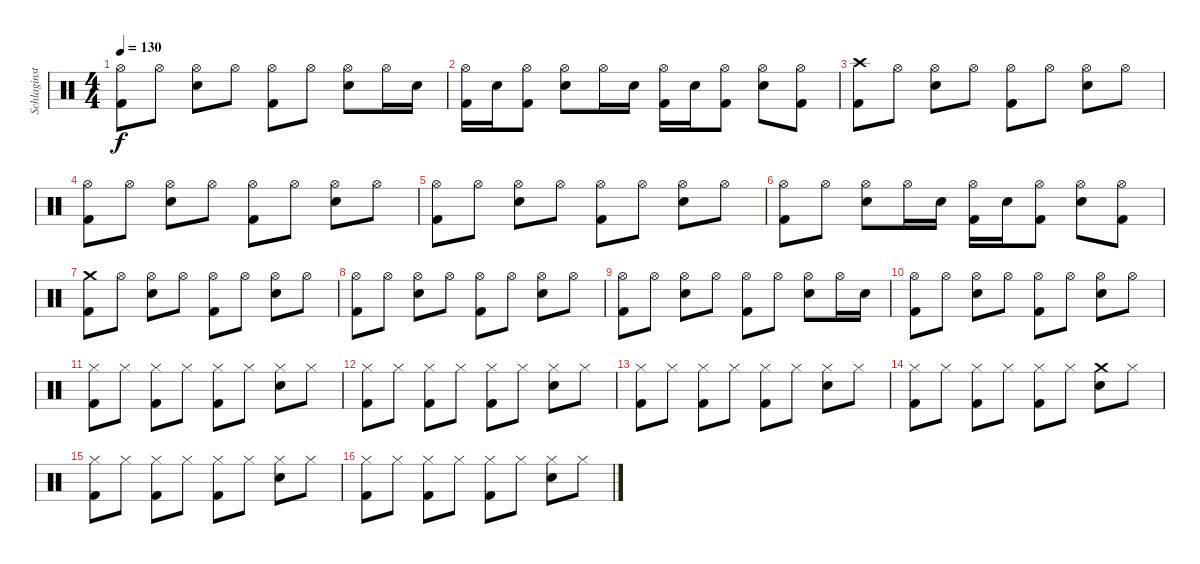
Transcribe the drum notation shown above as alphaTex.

\track ("Schlaginstrumente - Auswahl" "Schlaginst") {instrument percussion}
\staff {score}
\articulation defaults
\ts (4 4)
\tempo 130
\clef neutral
\ks c
("Hi-Hat (open)" "Kick (hit) 2").8{dy f} "Hi-Hat (open)".8 ("Hi-Hat (open)" "Snare (hit) 2").8 "Hi-Hat (open)".8 ("Hi-Hat (open)" "Kick (hit) 2").8 "Hi-Hat (open)".8 ("Hi-Hat (open)" "Snare (hit) 2").8 "Hi-Hat (open)".16 "Snare (hit) 2".16 |
("Hi-Hat (open)" "Kick (hit) 2").16 "Snare (hit) 2".16 ("Hi-Hat (open)" "Kick (hit) 2").8 ("Hi-Hat (open)" "Snare (hit) 2").8 "Hi-Hat (open)".16 "Snare (hit) 2".16 ("Hi-Hat (open)" "Kick (hit) 2").16 "Snare (hit) 2".16 ("Hi-Hat (open)" "Kick (hit) 2").8 ("Hi-Hat (open)" "Snare (hit) 2").8 ("Hi-Hat (open)" "Kick (hit) 2").8 |
("Crash high (hit)" "Kick (hit) 2").8 "Hi-Hat (open)".8 ("Hi-Hat (open)" "Snare (hit) 2").8 "Hi-Hat (open)".8 ("Hi-Hat (open)" "Kick (hit) 2").8 "Hi-Hat (open)".8 ("Hi-Hat (open)" "Snare (hit) 2").8 "Hi-Hat (open)".8 |
("Hi-Hat (open)" "Kick (hit) 2").8 "Hi-Hat (open)".8 ("Hi-Hat (open)" "Snare (hit) 2").8 "Hi-Hat (open)".8 ("Hi-Hat (open)" "Kick (hit) 2").8 "Hi-Hat (open)".8 ("Hi-Hat (open)" "Snare (hit) 2").8 "Hi-Hat (open)".8 |
("Hi-Hat (open)" "Kick (hit) 2").8 "Hi-Hat (open)".8 ("Hi-Hat (open)" "Snare (hit) 2").8 "Hi-Hat (open)".8 ("Hi-Hat (open)" "Kick (hit) 2").8 "Hi-Hat (open)".8 ("Hi-Hat (open)" "Snare (hit) 2").8 "Hi-Hat (open)".8 |
("Hi-Hat (open)" "Kick (hit) 2").8 "Hi-Hat (open)".8 ("Hi-Hat (open)" "Snare (hit) 2").8 "Hi-Hat (open)".16 "Snare (hit) 2".16 ("Hi-Hat (open)" "Kick (hit) 2").16 "Snare (hit) 2".16 ("Hi-Hat (open)" "Kick (hit) 2").8 ("Hi-Hat (open)" "Snare (hit) 2").8 ("Hi-Hat (open)" "Kick (hit) 2").8 |
("Crash medium (hit)" "Kick (hit) 2").8 "Hi-Hat (open)".8 ("Hi-Hat (open)" "Snare (hit) 2").8 "Hi-Hat (open)".8 ("Hi-Hat (open)" "Kick (hit) 2").8 "Hi-Hat (open)".8 ("Hi-Hat (open)" "Snare (hit) 2").8 "Hi-Hat (open)".8 |
("Hi-Hat (open)" "Kick (hit) 2").8 "Hi-Hat (open)".8 ("Hi-Hat (open)" "Snare (hit) 2").8 "Hi-Hat (open)".8 ("Hi-Hat (open)" "Kick (hit) 2").8 "Hi-Hat (open)".8 ("Hi-Hat (open)" "Snare (hit) 2").8 "Hi-Hat (open)".8 |
("Hi-Hat (open)" "Kick (hit) 2").8 "Hi-Hat (open)".8 ("Hi-Hat (open)" "Snare (hit) 2").8 "Hi-Hat (open)".8 ("Hi-Hat (open)" "Kick (hit) 2").8 "Hi-Hat (open)".8 ("Hi-Hat (open)" "Snare (hit) 2").8 "Hi-Hat (open)".16 "Snare (hit) 2".16 |
("Hi-Hat (open)" "Kick (hit) 2").8 "Hi-Hat (open)".8 ("Hi-Hat (open)" "Snare (hit) 2").8 "Hi-Hat (open)".8 ("Hi-Hat (open)" "Kick (hit) 2").8 "Hi-Hat (open)".8 ("Hi-Hat (open)" "Snare (hit) 2").8 "Hi-Hat (open)".8 |
("Hi-Hat (closed)" "Kick (hit) 2").8 "Hi-Hat (closed)".8 ("Hi-Hat (closed)" "Kick (hit) 2").8 "Hi-Hat (closed)".8 ("Hi-Hat (closed)" "Kick (hit) 2").8 "Hi-Hat (closed)".8 ("Hi-Hat (closed)" "Snare (hit) 2").8 "Hi-Hat (closed)".8 |
("Hi-Hat (closed)" "Kick (hit) 2").8 "Hi-Hat (closed)".8 ("Hi-Hat (closed)" "Kick (hit) 2").8 "Hi-Hat (closed)".8 ("Hi-Hat (closed)" "Kick (hit) 2").8 "Hi-Hat (closed)".8 ("Hi-Hat (closed)" "Snare (hit) 2").8 "Hi-Hat (closed)".8 |
("Hi-Hat (closed)" "Kick (hit) 2").8 "Hi-Hat (closed)".8 ("Hi-Hat (closed)" "Kick (hit) 2").8 "Hi-Hat (closed)".8 ("Hi-Hat (closed)" "Kick (hit) 2").8 "Hi-Hat (closed)".8 ("Hi-Hat (closed)" "Snare (hit) 2").8 "Hi-Hat (closed)".8 |
("Hi-Hat (closed)" "Kick (hit) 2").8 "Hi-Hat (closed)".8 ("Hi-Hat (closed)" "Kick (hit) 2").8 "Hi-Hat (closed)".8 ("Hi-Hat (closed)" "Kick (hit) 2").8 "Hi-Hat (closed)".8 ("Crash medium (hit)" "Snare (hit) 2").8 "Hi-Hat (closed)".8 |
("Hi-Hat (closed)" "Kick (hit) 2").8 "Hi-Hat (closed)".8 ("Hi-Hat (closed)" "Kick (hit) 2").8 "Hi-Hat (closed)".8 ("Hi-Hat (closed)" "Kick (hit) 2").8 "Hi-Hat (closed)".8 ("Hi-Hat (closed)" "Snare (hit) 2").8 "Hi-Hat (closed)".8 |
("Hi-Hat (closed)" "Kick (hit) 2").8 "Hi-Hat (closed)".8 ("Hi-Hat (closed)" "Kick (hit) 2").8 "Hi-Hat (closed)".8 ("Hi-Hat (closed)" "Kick (hit) 2").8 "Hi-Hat (closed)".8 ("Hi-Hat (closed)" "Snare (hit) 2").8 "Hi-Hat (closed)".8
